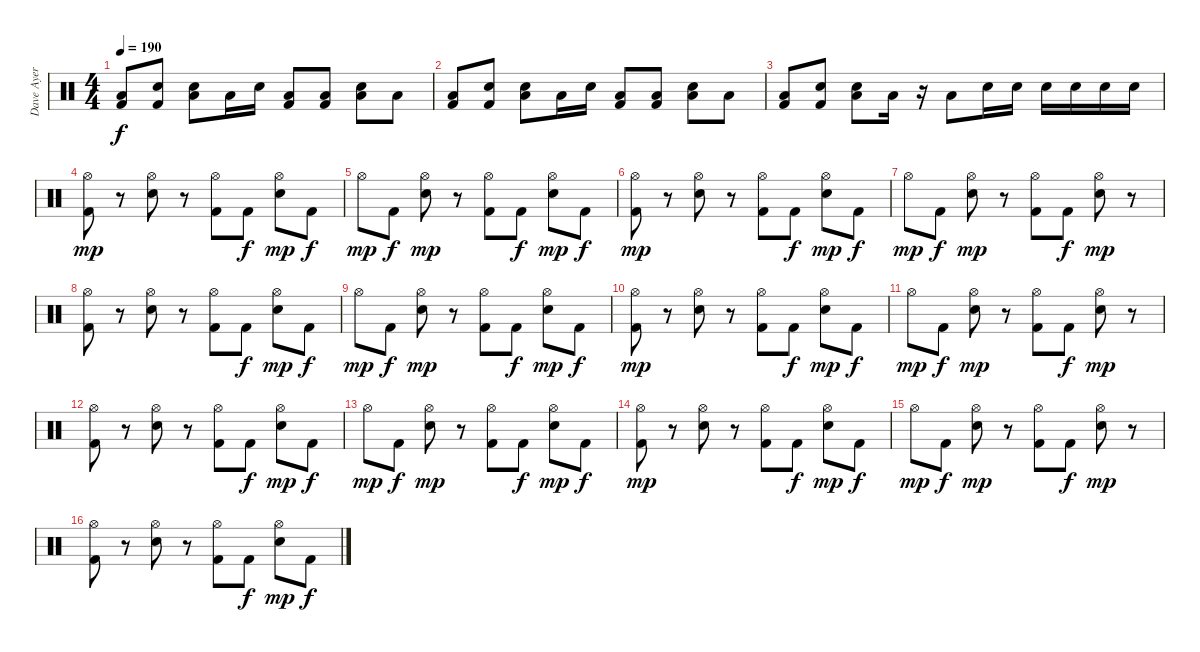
\track ("Dave Ayer" "Dave Ayer") {instrument percussion}
\staff {score}
\articulation defaults
\ts (4 4)
\tempo 190
\clef neutral
\ks c
("Low Floor Tom (hit)" "Kick (hit) 2").8{dy f} ("Snare (hit)" "Kick (hit) 2").8 ("Low Floor Tom (hit)" "Snare (hit) 2").8 "Low Floor Tom (hit)".16 "Snare (hit) 2".16 ("Low Floor Tom (hit)" "Kick (hit) 2").8 ("Low Floor Tom (hit)" "Kick (hit) 2").8 ("Low Floor Tom (hit)" "Snare (hit) 2").8 "Low Floor Tom (hit)".8 |
("Low Floor Tom (hit)" "Kick (hit) 2").8 ("Snare (hit)" "Kick (hit) 2").8 ("Low Floor Tom (hit)" "Snare (hit) 2").8 "Low Floor Tom (hit)".16 "Snare (hit) 2".16 ("Low Floor Tom (hit)" "Kick (hit) 2").8 ("Low Floor Tom (hit)" "Kick (hit) 2").8 ("Low Floor Tom (hit)" "Snare (hit) 2").8 "Low Floor Tom (hit)".8 |
("Low Floor Tom (hit)" "Kick (hit) 2").8 ("Snare (hit)" "Kick (hit) 2").8 ("Low Floor Tom (hit)" "Snare (hit) 2").8 "Low Floor Tom (hit)".16 r.16 "Low Floor Tom (hit)".8 "Snare (hit) 2".16 "Snare (hit) 2".16 "Snare (hit) 2".16 "Snare (hit) 2".16 "Snare (hit) 2".16 "Snare (hit) 2".16 |
("Hi-Hat (open)" "Kick (hit) 2").8{dy mp} r.8 ("Hi-Hat (open)" "Snare (hit) 2").8 r.8 ("Hi-Hat (open)" "Kick (hit) 2").8 "Kick (hit) 2".8{dy f} ("Hi-Hat (open)" "Snare (hit) 2").8{dy mp} "Kick (hit) 2".8{dy f} |
"Hi-Hat (open)".8{dy mp} "Kick (hit) 2".8{dy f} ("Hi-Hat (open)" "Snare (hit) 2").8{dy mp} r.8 ("Hi-Hat (open)" "Kick (hit) 2").8 "Kick (hit) 2".8{dy f} ("Hi-Hat (open)" "Snare (hit) 2").8{dy mp} "Kick (hit) 2".8{dy f} |
("Hi-Hat (open)" "Kick (hit) 2").8{dy mp} r.8 ("Hi-Hat (open)" "Snare (hit) 2").8 r.8 ("Hi-Hat (open)" "Kick (hit) 2").8 "Kick (hit) 2".8{dy f} ("Hi-Hat (open)" "Snare (hit) 2").8{dy mp} "Kick (hit) 2".8{dy f} |
"Hi-Hat (open)".8{dy mp} "Kick (hit) 2".8{dy f} ("Hi-Hat (open)" "Snare (hit) 2").8{dy mp} r.8 ("Hi-Hat (open)" "Kick (hit) 2").8 "Kick (hit) 2".8{dy f} ("Hi-Hat (open)" "Snare (hit) 2").8{dy mp} r.8 |
("Hi-Hat (open)" "Kick (hit) 2").8 r.8 ("Hi-Hat (open)" "Snare (hit) 2").8 r.8 ("Hi-Hat (open)" "Kick (hit) 2").8 "Kick (hit) 2".8{dy f} ("Hi-Hat (open)" "Snare (hit) 2").8{dy mp} "Kick (hit) 2".8{dy f} |
"Hi-Hat (open)".8{dy mp} "Kick (hit) 2".8{dy f} ("Hi-Hat (open)" "Snare (hit) 2").8{dy mp} r.8 ("Hi-Hat (open)" "Kick (hit) 2").8 "Kick (hit) 2".8{dy f} ("Hi-Hat (open)" "Snare (hit) 2").8{dy mp} "Kick (hit) 2".8{dy f} |
("Hi-Hat (open)" "Kick (hit) 2").8{dy mp} r.8 ("Hi-Hat (open)" "Snare (hit) 2").8 r.8 ("Hi-Hat (open)" "Kick (hit) 2").8 "Kick (hit) 2".8{dy f} ("Hi-Hat (open)" "Snare (hit) 2").8{dy mp} "Kick (hit) 2".8{dy f} |
"Hi-Hat (open)".8{dy mp} "Kick (hit) 2".8{dy f} ("Hi-Hat (open)" "Snare (hit) 2").8{dy mp} r.8 ("Hi-Hat (open)" "Kick (hit) 2").8 "Kick (hit) 2".8{dy f} ("Hi-Hat (open)" "Snare (hit) 2").8{dy mp} r.8 |
("Hi-Hat (open)" "Kick (hit) 2").8 r.8 ("Hi-Hat (open)" "Snare (hit) 2").8 r.8 ("Hi-Hat (open)" "Kick (hit) 2").8 "Kick (hit) 2".8{dy f} ("Hi-Hat (open)" "Snare (hit) 2").8{dy mp} "Kick (hit) 2".8{dy f} |
"Hi-Hat (open)".8{dy mp} "Kick (hit) 2".8{dy f} ("Hi-Hat (open)" "Snare (hit) 2").8{dy mp} r.8 ("Hi-Hat (open)" "Kick (hit) 2").8 "Kick (hit) 2".8{dy f} ("Hi-Hat (open)" "Snare (hit) 2").8{dy mp} "Kick (hit) 2".8{dy f} |
("Hi-Hat (open)" "Kick (hit) 2").8{dy mp} r.8 ("Hi-Hat (open)" "Snare (hit) 2").8 r.8 ("Hi-Hat (open)" "Kick (hit) 2").8 "Kick (hit) 2".8{dy f} ("Hi-Hat (open)" "Snare (hit) 2").8{dy mp} "Kick (hit) 2".8{dy f} |
"Hi-Hat (open)".8{dy mp} "Kick (hit) 2".8{dy f} ("Hi-Hat (open)" "Snare (hit) 2").8{dy mp} r.8 ("Hi-Hat (open)" "Kick (hit) 2").8 "Kick (hit) 2".8{dy f} ("Hi-Hat (open)" "Snare (hit) 2").8{dy mp} r.8 |
("Hi-Hat (open)" "Kick (hit) 2").8 r.8 ("Hi-Hat (open)" "Snare (hit) 2").8 r.8 ("Hi-Hat (open)" "Kick (hit) 2").8 "Kick (hit) 2".8{dy f} ("Hi-Hat (open)" "Snare (hit) 2").8{dy mp} "Kick (hit) 2".8{dy f}
